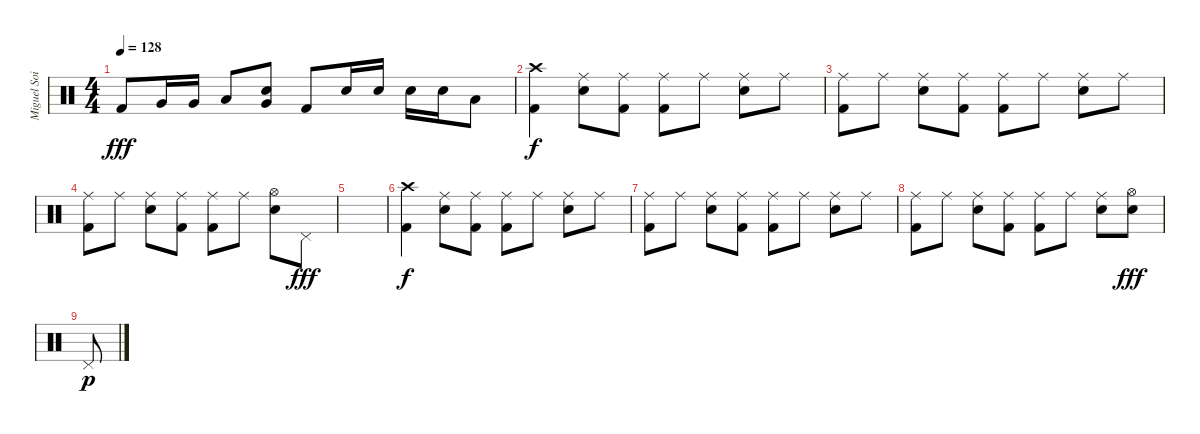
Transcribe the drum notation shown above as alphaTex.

\track ("Miguel Soifer (Batería)" "Miguel Soi") {instrument percussion}
\staff {score}
\articulation defaults
\ts (4 4)
\tempo 128
\clef neutral
\ks c "Kick (hit) 2".8{dy fff} "Very Low Tom (hit)".16 "Very Low Tom (hit)".16 "Low Floor Tom (hit)".8
("Very Low Tom (hit)" "Snare (hit) 2").8 "Kick (hit) 2".8 "Snare (hit) 2".16 "Snare (hit) 2".16 "Snare (hit) 2".16 "Snare (hit) 2".16 "Low Floor Tom (hit)".8 |
("Crash high (hit)" "Kick (hit) 2").4{dy f} ("Ride (middle)" "Snare (hit) 2").8 ("Ride (middle)" "Kick (hit) 2").8 ("Ride (middle)" "Kick (hit) 2").8 "Ride (middle)".8 ("Ride (middle)" "Snare (hit) 2").8 "Ride (middle)".8 |
("Ride (middle)" "Kick (hit) 2").8 "Ride (middle)".8 ("Ride (middle)" "Snare (hit) 2").8 ("Ride (middle)" "Kick (hit) 2").8 ("Ride (middle)" "Kick (hit) 2").8 "Ride (middle)".8 ("Ride (middle)" "Snare (hit) 2").8 "Ride (middle)".8 |
("Ride (middle)" "Kick (hit) 2").8 "Ride (middle)".8 ("Ride (middle)" "Snare (hit) 2").8 ("Ride (middle)" "Kick (hit) 2").8 ("Ride (middle)" "Kick (hit) 2").8 "Ride (middle)".8 ("Hi-Hat (open)" "Snare (hit) 2").8 "Pedal Hi-Hat (hit)".8{dy fff} |
|
("Crash high (hit)" "Kick (hit) 2").4{dy f} ("Ride (middle)" "Snare (hit) 2").8 ("Ride (middle)" "Kick (hit) 2").8 ("Ride (middle)" "Kick (hit) 2").8 "Ride (middle)".8 ("Ride (middle)" "Snare (hit) 2").8 "Ride (middle)".8 |
("Ride (middle)" "Kick (hit) 2").8 "Ride (middle)".8 ("Ride (middle)" "Snare (hit) 2").8 ("Ride (middle)" "Kick (hit) 2").8 ("Ride (middle)" "Kick (hit) 2").8 "Ride (middle)".8 ("Ride (middle)" "Snare (hit) 2").8 "Ride (middle)".8 |
("Ride (middle)" "Kick (hit) 2").8 "Ride (middle)".8 ("Ride (middle)" "Snare (hit) 2").8 ("Ride (middle)" "Kick (hit) 2").8 ("Ride (middle)" "Kick (hit) 2").8 "Ride (middle)".8 ("Ride (middle)" "Snare (hit) 2").8 ("Hi-Hat (open)" "Snare (hit) 2").8{dy fff} |
"Pedal Hi-Hat (hit)".8{dy p}
